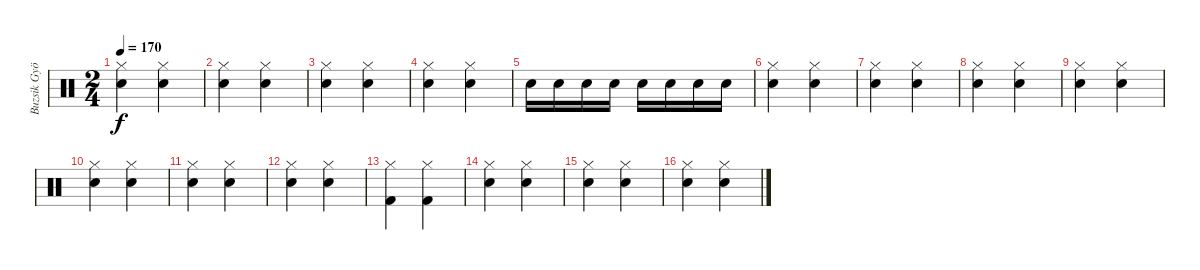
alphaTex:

\track ("Buzsik György (dob)" "Buzsik Gyö") {instrument percussion}
\staff {score}
\articulation defaults
\ts (2 4)
\tempo 170
\clef neutral
\ks c
("Hi-Hat (closed)" "Snare (hit) 2").4{dy f} ("Hi-Hat (closed)" "Snare (hit) 2").4 |
("Hi-Hat (closed)" "Snare (hit) 2").4 ("Hi-Hat (closed)" "Snare (hit) 2").4 |
("Hi-Hat (closed)" "Snare (hit) 2").4 ("Hi-Hat (closed)" "Snare (hit) 2").4 |
("Hi-Hat (closed)" "Snare (hit) 2").4 ("Hi-Hat (closed)" "Snare (hit) 2").4 |
"Snare (hit) 2".16 "Snare (hit) 2".16 "Snare (hit) 2".16 "Snare (hit) 2".16 "Snare (hit) 2".16 "Snare (hit) 2".16 "Snare (hit) 2".16 "Snare (hit) 2".16 |
("Hi-Hat (closed)" "Snare (hit) 2").4 ("Hi-Hat (closed)" "Snare (hit) 2").4 |
("Hi-Hat (closed)" "Snare (hit) 2").4 ("Hi-Hat (closed)" "Snare (hit) 2").4 |
("Hi-Hat (closed)" "Snare (hit) 2").4 ("Hi-Hat (closed)" "Snare (hit) 2").4 |
("Hi-Hat (closed)" "Snare (hit) 2").4 ("Hi-Hat (closed)" "Snare (hit) 2").4 |
("Hi-Hat (closed)" "Snare (hit) 2").4 ("Hi-Hat (closed)" "Snare (hit) 2").4 |
("Hi-Hat (closed)" "Snare (hit) 2").4 ("Hi-Hat (closed)" "Snare (hit) 2").4 |
("Hi-Hat (closed)" "Snare (hit) 2").4 ("Hi-Hat (closed)" "Snare (hit) 2").4 |
("Hi-Hat (closed)" "Kick (hit) 2").4 ("Hi-Hat (closed)" "Kick (hit) 2").4 |
("Hi-Hat (closed)" "Snare (hit) 2").4 ("Hi-Hat (closed)" "Snare (hit) 2").4 |
("Hi-Hat (closed)" "Snare (hit) 2").4 ("Hi-Hat (closed)" "Snare (hit) 2").4 |
("Hi-Hat (closed)" "Snare (hit) 2").4 ("Hi-Hat (closed)" "Snare (hit) 2").4
